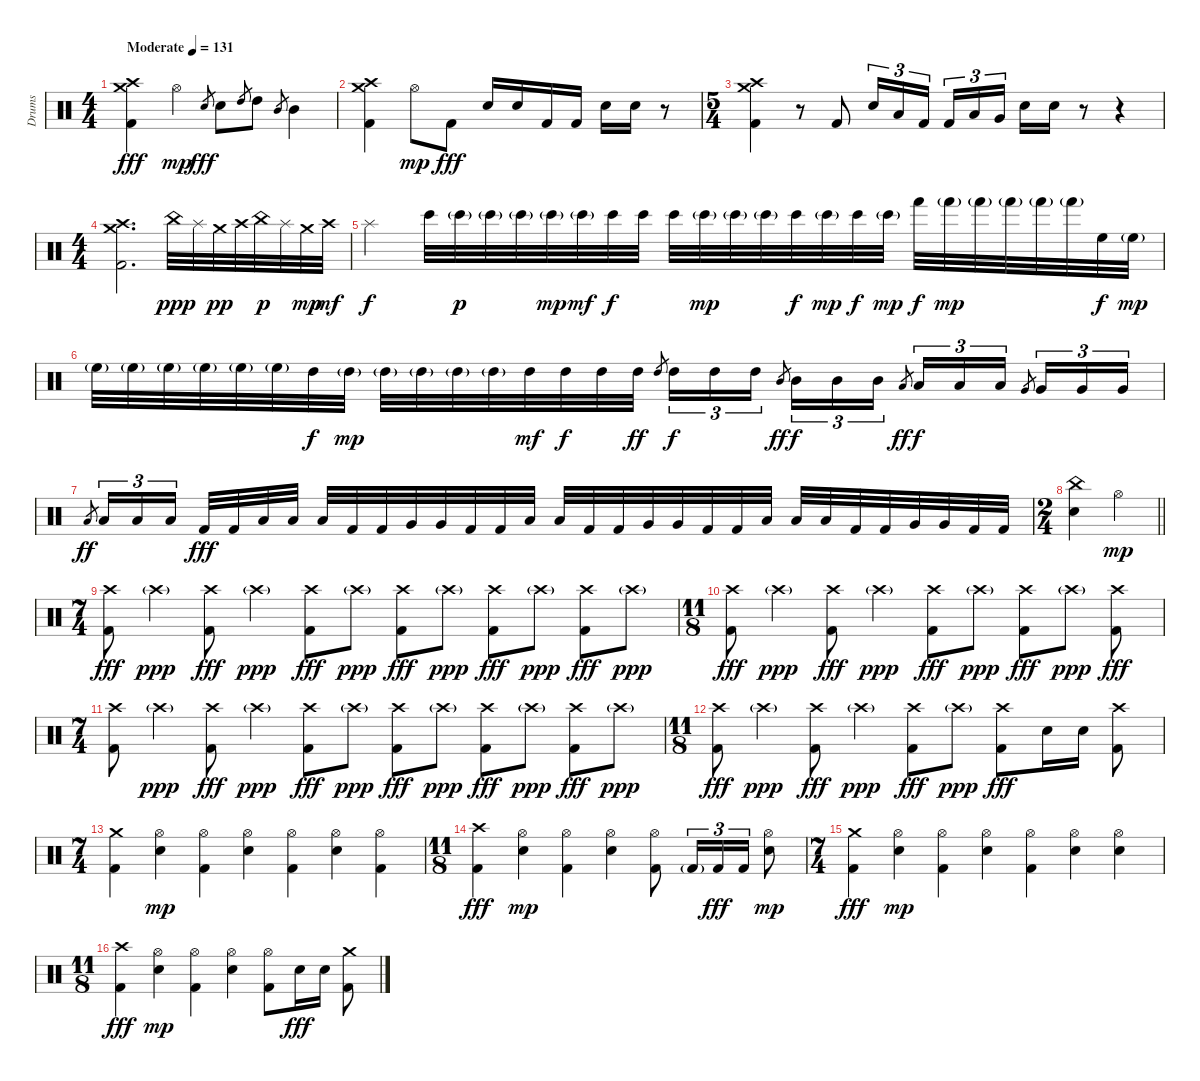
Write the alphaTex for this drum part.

\track ("Drums" "Drums") {instrument percussion}
\staff {score}
\articulation defaults
\ts (4 4)
\tempo (131 "Moderate")
\clef neutral
\ks c
("Kick (hit) 2" "Crash medium (hit)" "Crash high (hit)").4{dy fff} "Hi-Hat (open)".4{dy mp} "Electric Snare (hit)".8{gr dy fff} "Electric Snare (hit)".8 "High Tom (hit)".8{gr} "High Tom (hit)".8 "Mid Tom (hit)".8{gr} "Mid Tom (hit)".4 |
("Kick (hit) 2" "Crash medium (hit)" "Crash high (hit)").4 "Hi-Hat (open)".8{dy mp} "Kick (hit) 2".8{dy fff} "Electric Snare (hit)".16 "Electric Snare (hit)".16 "Kick (hit) 2".16 "Kick (hit) 2".16 "Electric Snare (hit)".16 "Electric Snare (hit)".16 r.8 |
\ts (5 4)
("Kick (hit) 2" "Crash medium (hit)" "Crash high (hit)").4 r.8 "Kick (hit) 2".8 "Electric Snare (hit)".16{tu (3 2)} "Low Tom (hit)".16{tu (3 2)} "Kick (hit) 2".16{tu (3 2) beam splitsecondary} "Kick (hit) 2".16{tu (3 2)} "Low Tom (hit)".16{tu (3 2)} "Very Low Tom (hit)".16{tu (3 2)} "Electric Snare (hit)".16 "Electric Snare (hit)".16 r.8 r.4 |
\ts (4 4)
("Kick (hit) 2" "Crash medium (hit)" "Crash high (hit)").2{d} "China (hit)".32{dy ppp} "Splash (hit)".32 "Crash medium (hit)".32{dy pp} "Crash high (hit)".32 "China (hit)".32{dy p} "Splash (hit)".32 "Crash medium (hit)".32{dy mp} "Crash high (hit)".32{dy mf} |
"Splash (hit)".4{dy f} "Bongo High (hit)".32 "Bongo High (hit)"{g}.32{dy p} "Bongo High (hit)"{g}.32 "Bongo High (hit)"{g}.32 "Bongo High (hit)"{g}.32{dy mp} "Bongo High (hit)"{g}.32{dy mf} "Bongo High (hit)".32{dy f} "Bongo High (hit)".32 "Bongo High (hit)".32 "Bongo High (hit)"{g}.32{dy mp} "Bongo High (hit)"{g}.32 "Bongo High (hit)"{g}.32 "Bongo High (hit)".32{dy f} "Bongo High (hit)"{g}.32{dy mp} "Bongo High (hit)".32{dy f} "Bongo High (hit)"{g}.32{dy mp} "Hand (hit)".32{dy f} "Hand (hit)"{g}.32{dy mp} "Hand (hit)"{g}.32 "Hand (hit)"{g}.32 "Hand (hit)"{g}.32 "Hand (hit)"{g}.32 "High Floor Tom (hit)".32{dy f} "High Floor Tom (hit)"{g}.32{dy mp} |
"High Floor Tom (hit)"{g}.32 "High Floor Tom (hit)"{g}.32 "High Floor Tom (hit)"{g}.32 "High Floor Tom (hit)"{g}.32 "High Floor Tom (hit)"{g}.32 "High Floor Tom (hit)"{g}.32 "High Tom (hit)".32{dy f} "High Tom (hit)"{g}.32{dy mp} "High Tom (hit)"{g}.32 "High Tom (hit)"{g}.32 "High Tom (hit)"{g}.32 "High Tom (hit)"{g}.32 "High Tom (hit)".32{dy mf} "High Tom (hit)".32{dy f} "High Tom (hit)".32 "High Tom (hit)".32{dy ff} "High Tom (hit)".8{gr} "High Tom (hit)".16{tu (3 2) dy f} "High Tom (hit)".16{tu (3 2)} "High Tom (hit)".16{tu (3 2)} "Mid Tom (hit)".8{gr dy ff beam splitsecondary} "Mid Tom (hit)".16{tu (3 2) dy f} "Mid Tom (hit)".16{tu (3 2)} "Mid Tom (hit)".16{tu (3 2)} "Low Tom (hit)".8{gr dy ff} "Low Tom (hit)".16{tu (3 2) dy f} "Low Tom (hit)".16{tu (3 2)} "Low Tom (hit)".16{tu (3 2)} "Very Low Tom (hit)".8{gr beam splitsecondary} "Very Low Tom (hit)".16{tu (3 2)} "Very Low Tom (hit)".16{tu (3 2)} "Very Low Tom (hit)".16{tu (3 2)} |
"Low Floor Tom (hit)".8{gr dy ff} "Low Floor Tom (hit)".16{tu (3 2)} "Low Floor Tom (hit)".16{tu (3 2)} "Low Floor Tom (hit)".16{tu (3 2) beam splitsecondary} "Kick (hit) 2".32{dy fff} "Kick (hit) 2".32 "Low Floor Tom (hit)".32 "Low Floor Tom (hit)".32 "Low Floor Tom (hit)".32 "Kick (hit) 2".32 "Kick (hit) 2".32 "Very Low Tom (hit)".32 "Very Low Tom (hit)".32 "Kick (hit) 2".32 "Kick (hit) 2".32 "Low Floor Tom (hit)".32 "Low Floor Tom (hit)".32 "Kick (hit) 2".32 "Kick (hit) 2".32 "Very Low Tom (hit)".32 "Very Low Tom (hit)".32 "Kick (hit) 2".32 "Kick (hit) 2".32 "Low Floor Tom (hit)".32 "Low Floor Tom (hit)".32 "Low Floor Tom (hit)".32 "Kick (hit) 2".32 "Kick (hit) 2".32 "Very Low Tom (hit)".32 "Very Low Tom (hit)".32 "Kick (hit) 2".32 "Kick (hit) 2".32 |
\ts (2 4)
\barLineRight lightlight
("Electric Snare (hit)" "China (hit)").4 "Hi-Hat (open)".4{dy mp} |
\ts (7 4)
("Kick (hit) 2" "Crash high (hit)").8{dy fff} "Crash high (hit)"{g}.4{dy ppp} ("Kick (hit) 2" "Crash high (hit)").8{dy fff} "Crash high (hit)"{g}.4{dy ppp} ("Kick (hit) 2" "Crash high (hit)").8{dy fff} "Crash high (hit)"{g}.8{dy ppp} ("Kick (hit) 2" "Crash high (hit)").8{dy fff} "Crash high (hit)"{g}.8{dy ppp} ("Kick (hit) 2" "Crash high (hit)").8{dy fff} "Crash high (hit)"{g}.8{dy ppp} ("Kick (hit) 2" "Crash high (hit)").8{dy fff} "Crash high (hit)"{g}.8{dy ppp} |
\ts (11 8)
("Kick (hit) 2" "Crash high (hit)").8{dy fff} "Crash high (hit)"{g}.4{dy ppp} ("Kick (hit) 2" "Crash high (hit)").8{dy fff} "Crash high (hit)"{g}.4{dy ppp} ("Kick (hit) 2" "Crash high (hit)").8{dy fff} "Crash high (hit)"{g}.8{dy ppp} ("Kick (hit) 2" "Crash high (hit)").8{dy fff} "Crash high (hit)"{g}.8{dy ppp} ("Kick (hit) 2" "Crash high (hit)").8{dy fff} |
\ts (7 4)
("Kick (hit) 2" "Crash high (hit)").8 "Crash high (hit)"{g}.4{dy ppp} ("Kick (hit) 2" "Crash high (hit)").8{dy fff} "Crash high (hit)"{g}.4{dy ppp} ("Kick (hit) 2" "Crash high (hit)").8{dy fff} "Crash high (hit)"{g}.8{dy ppp} ("Kick (hit) 2" "Crash high (hit)").8{dy fff} "Crash high (hit)"{g}.8{dy ppp} ("Kick (hit) 2" "Crash high (hit)").8{dy fff} "Crash high (hit)"{g}.8{dy ppp} ("Kick (hit) 2" "Crash high (hit)").8{dy fff} "Crash high (hit)"{g}.8{dy ppp} |
\ts (11 8)
("Kick (hit) 2" "Crash high (hit)").8{dy fff} "Crash high (hit)"{g}.4{dy ppp} ("Kick (hit) 2" "Crash high (hit)").8{dy fff} "Crash high (hit)"{g}.4{dy ppp} ("Kick (hit) 2" "Crash high (hit)").8{dy fff} "Crash high (hit)"{g}.8{dy ppp} ("Kick (hit) 2" "Crash high (hit)").8{dy fff} "Electric Snare (hit)".16 "Electric Snare (hit)".16 ("Kick (hit) 2" "Crash high (hit)").8 |
\ts (7 4)
("Kick (hit) 2" "Crash medium (hit)").4 ("Electric Snare (hit)" "Hi-Hat (open)").4{dy mp} ("Kick (hit) 2" "Hi-Hat (open)").4 ("Electric Snare (hit)" "Hi-Hat (open)").4 ("Kick (hit) 2" "Hi-Hat (open)").4 ("Electric Snare (hit)" "Hi-Hat (open)").4 ("Kick (hit) 2" "Hi-Hat (open)").4 |
\ts (11 8)
("Kick (hit) 2" "Crash high (hit)").4{dy fff} ("Electric Snare (hit)" "Hi-Hat (open)").4{dy mp} ("Kick (hit) 2" "Hi-Hat (open)").4 ("Electric Snare (hit)" "Hi-Hat (open)").4 ("Kick (hit) 2" "Hi-Hat (open)").8 "Kick (hit) 2"{g}.16{tu (3 2)} "Kick (hit) 2".16{tu (3 2) dy fff} "Kick (hit) 2".16{tu (3 2)} ("Electric Snare (hit)" "Hi-Hat (open)").8{dy mp} |
\ts (7 4)
("Kick (hit) 2" "Crash medium (hit)").4{dy fff} ("Electric Snare (hit)" "Hi-Hat (open)").4{dy mp} ("Kick (hit) 2" "Hi-Hat (open)").4 ("Electric Snare (hit)" "Hi-Hat (open)").4 ("Kick (hit) 2" "Hi-Hat (open)").4 ("Electric Snare (hit)" "Hi-Hat (open)").4 ("Electric Snare (hit)" "Hi-Hat (open)").4 |
\ts (11 8)
("Kick (hit) 2" "Crash high (hit)").4{dy fff} ("Electric Snare (hit)" "Hi-Hat (open)").4{dy mp} ("Kick (hit) 2" "Hi-Hat (open)").4 ("Electric Snare (hit)" "Hi-Hat (open)").4 ("Kick (hit) 2" "Hi-Hat (open)").8 "Electric Snare (hit)".16{dy fff} "Electric Snare (hit)".16 ("Kick (hit) 2" "Crash medium (hit)").8
